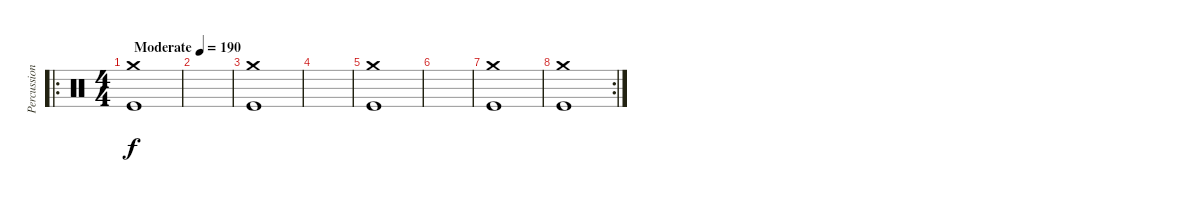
\track ("Percussion" "Percussion") {instrument percussion}
\staff {score}
\articulation defaults
\ro
\ts (4 4)
\tempo (190 "Moderate")
\clef neutral
\ks c
("Crash medium (hit)" "Kick (hit)").1{dy f} |
|
("Crash medium (hit)" "Kick (hit)").1 |
|
("Crash medium (hit)" "Kick (hit)").1 |
|
("Crash medium (hit)" "Kick (hit)").1 |
\rc 2
("Crash medium (hit)" "Kick (hit)").1
